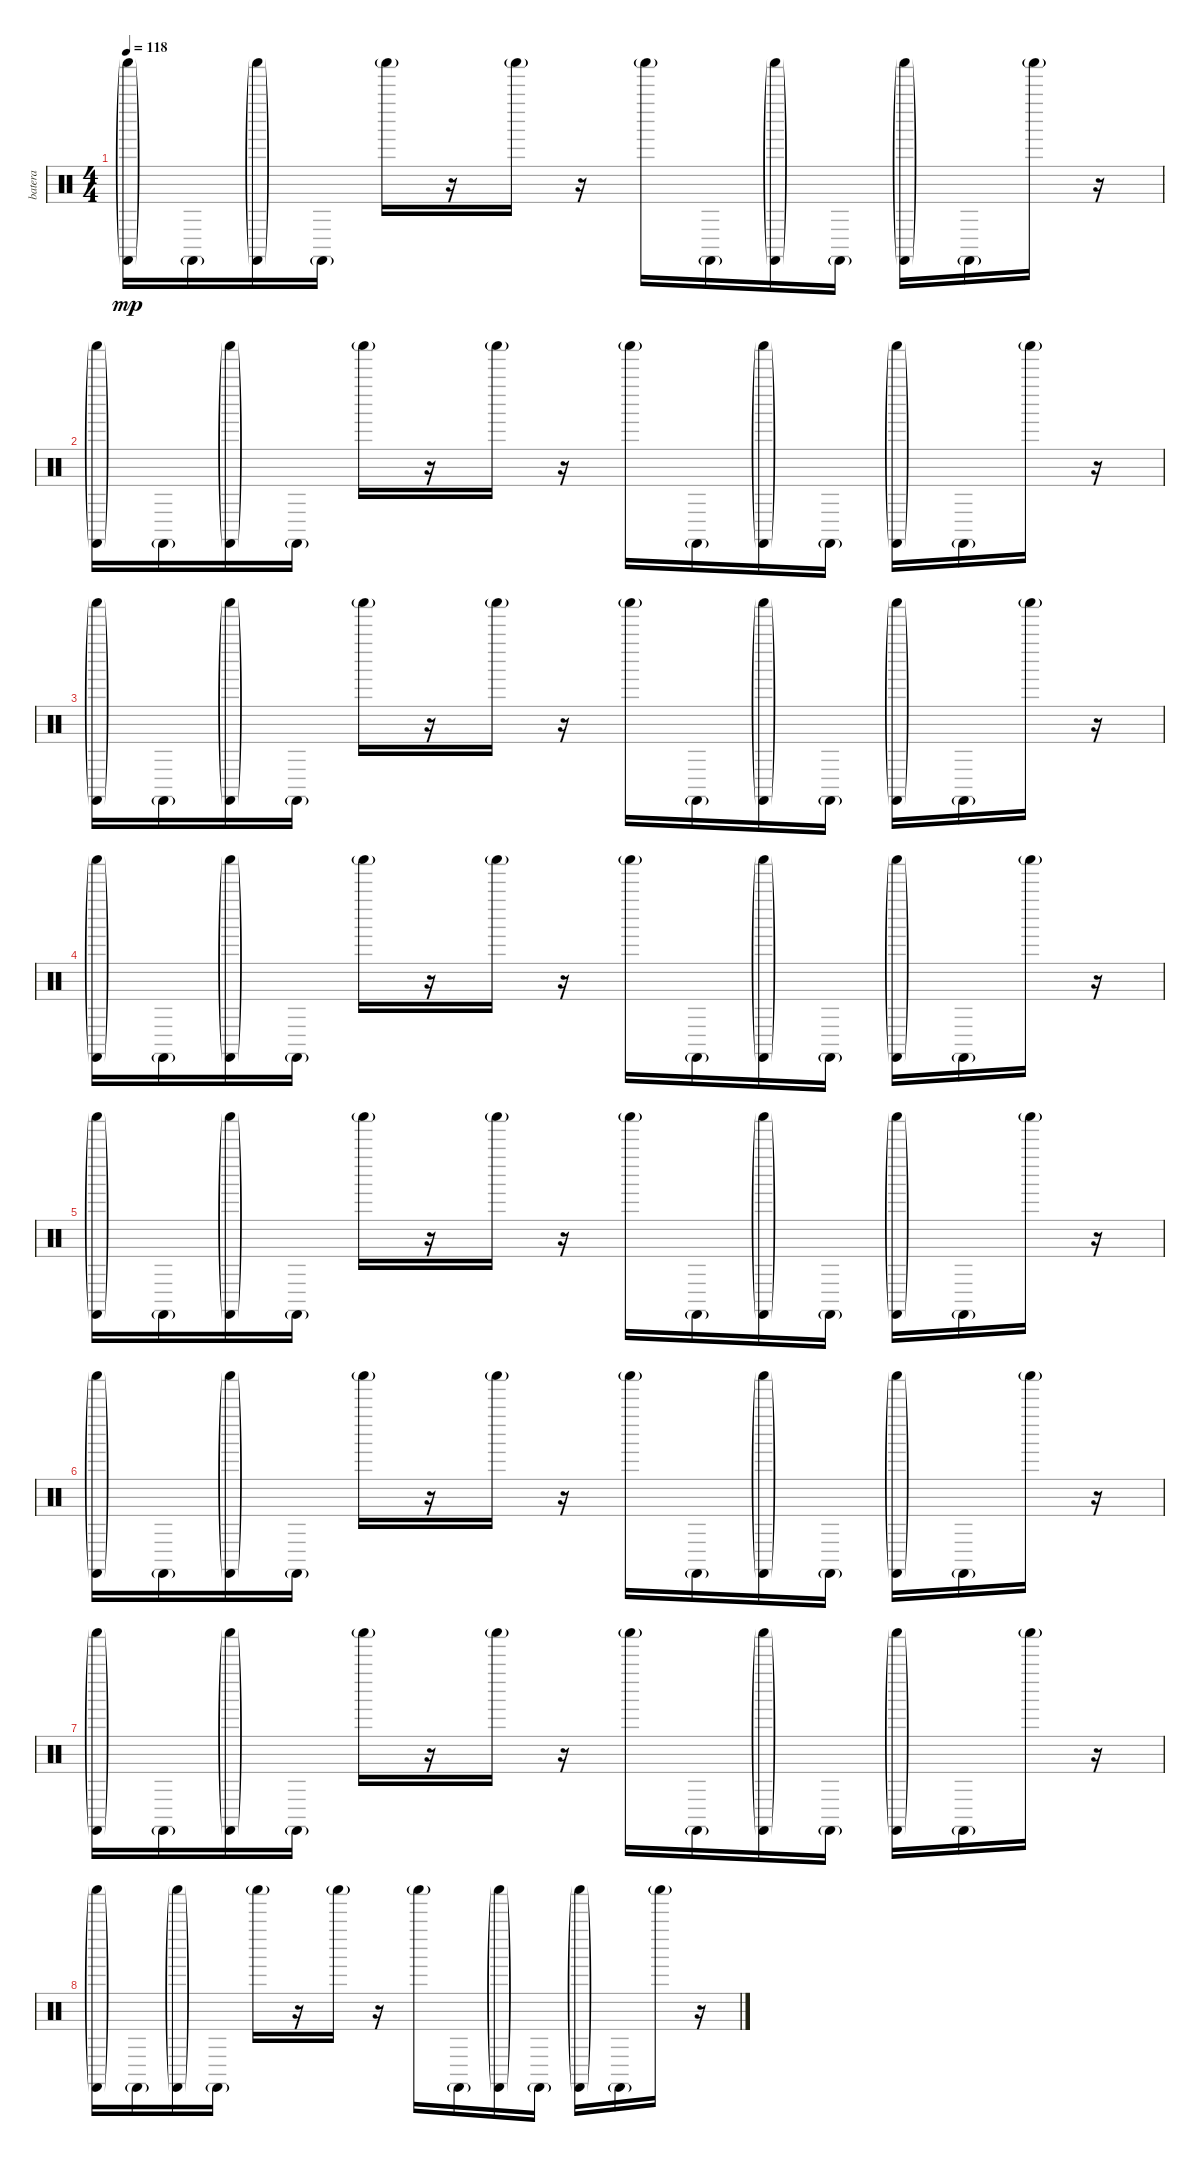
\track ("batera" "batera") {instrument percussion}
\staff {score}
\articulation defaults
\ts (4 4)
\tempo 118
\clef neutral
\ks c
("Castanets (hit)"{g} "Shaker (hit)"{g}).16{dy mp} "Castanets (hit)"{g}.16 ("Castanets (hit)"{g} "Shaker (hit)"{g}).16 "Castanets (hit)"{g}.16 "Shaker (hit)"{g}.16 r.16 "Shaker (hit)"{g}.16 r.16 "Shaker (hit)"{g}.16 "Castanets (hit)"{g}.16 ("Castanets (hit)"{g} "Shaker (hit)"{g}).16 "Castanets (hit)"{g}.16 ("Castanets (hit)"{g} "Shaker (hit)"{g}).16 "Castanets (hit)"{g}.16 "Shaker (hit)"{g}.16 r.16 |
\section ("" "")
("Castanets (hit)"{g} "Shaker (hit)"{g}).16 "Castanets (hit)"{g}.16 ("Castanets (hit)"{g} "Shaker (hit)"{g}).16 "Castanets (hit)"{g}.16 "Shaker (hit)"{g}.16 r.16 "Shaker (hit)"{g}.16 r.16 "Shaker (hit)"{g}.16 "Castanets (hit)"{g}.16 ("Castanets (hit)"{g} "Shaker (hit)"{g}).16 "Castanets (hit)"{g}.16 ("Castanets (hit)"{g} "Shaker (hit)"{g}).16 "Castanets (hit)"{g}.16 "Shaker (hit)"{g}.16 r.16 |
("Castanets (hit)"{g} "Shaker (hit)"{g}).16 "Castanets (hit)"{g}.16 ("Castanets (hit)"{g} "Shaker (hit)"{g}).16 "Castanets (hit)"{g}.16 "Shaker (hit)"{g}.16 r.16 "Shaker (hit)"{g}.16 r.16 "Shaker (hit)"{g}.16 "Castanets (hit)"{g}.16 ("Castanets (hit)"{g} "Shaker (hit)"{g}).16 "Castanets (hit)"{g}.16 ("Castanets (hit)"{g} "Shaker (hit)"{g}).16 "Castanets (hit)"{g}.16 "Shaker (hit)"{g}.16 r.16 |
("Castanets (hit)"{g} "Shaker (hit)"{g}).16 "Castanets (hit)"{g}.16 ("Castanets (hit)"{g} "Shaker (hit)"{g}).16 "Castanets (hit)"{g}.16 "Shaker (hit)"{g}.16 r.16 "Shaker (hit)"{g}.16 r.16 "Shaker (hit)"{g}.16 "Castanets (hit)"{g}.16 ("Castanets (hit)"{g} "Shaker (hit)"{g}).16 "Castanets (hit)"{g}.16 ("Castanets (hit)"{g} "Shaker (hit)"{g}).16 "Castanets (hit)"{g}.16 "Shaker (hit)"{g}.16 r.16 |
("Castanets (hit)"{g} "Shaker (hit)"{g}).16 "Castanets (hit)"{g}.16 ("Castanets (hit)"{g} "Shaker (hit)"{g}).16 "Castanets (hit)"{g}.16 "Shaker (hit)"{g}.16 r.16 "Shaker (hit)"{g}.16 r.16 "Shaker (hit)"{g}.16 "Castanets (hit)"{g}.16 ("Castanets (hit)"{g} "Shaker (hit)"{g}).16 "Castanets (hit)"{g}.16 ("Castanets (hit)"{g} "Shaker (hit)"{g}).16 "Castanets (hit)"{g}.16 "Shaker (hit)"{g}.16 r.16 |
\section ("" "")
("Castanets (hit)"{g} "Shaker (hit)"{g}).16 "Castanets (hit)"{g}.16 ("Castanets (hit)"{g} "Shaker (hit)"{g}).16 "Castanets (hit)"{g}.16 "Shaker (hit)"{g}.16 r.16 "Shaker (hit)"{g}.16 r.16 "Shaker (hit)"{g}.16 "Castanets (hit)"{g}.16 ("Castanets (hit)"{g} "Shaker (hit)"{g}).16 "Castanets (hit)"{g}.16 ("Castanets (hit)"{g} "Shaker (hit)"{g}).16 "Castanets (hit)"{g}.16 "Shaker (hit)"{g}.16 r.16 |
("Castanets (hit)"{g} "Shaker (hit)"{g}).16 "Castanets (hit)"{g}.16 ("Castanets (hit)"{g} "Shaker (hit)"{g}).16 "Castanets (hit)"{g}.16 "Shaker (hit)"{g}.16 r.16 "Shaker (hit)"{g}.16 r.16 "Shaker (hit)"{g}.16 "Castanets (hit)"{g}.16 ("Castanets (hit)"{g} "Shaker (hit)"{g}).16 "Castanets (hit)"{g}.16 ("Castanets (hit)"{g} "Shaker (hit)"{g}).16 "Castanets (hit)"{g}.16 "Shaker (hit)"{g}.16 r.16 |
("Castanets (hit)"{g} "Shaker (hit)"{g}).16 "Castanets (hit)"{g}.16 ("Castanets (hit)"{g} "Shaker (hit)"{g}).16 "Castanets (hit)"{g}.16 "Shaker (hit)"{g}.16 r.16 "Shaker (hit)"{g}.16 r.16 "Shaker (hit)"{g}.16 "Castanets (hit)"{g}.16 ("Castanets (hit)"{g} "Shaker (hit)"{g}).16 "Castanets (hit)"{g}.16 ("Castanets (hit)"{g} "Shaker (hit)"{g}).16 "Castanets (hit)"{g}.16 "Shaker (hit)"{g}.16 r.16
